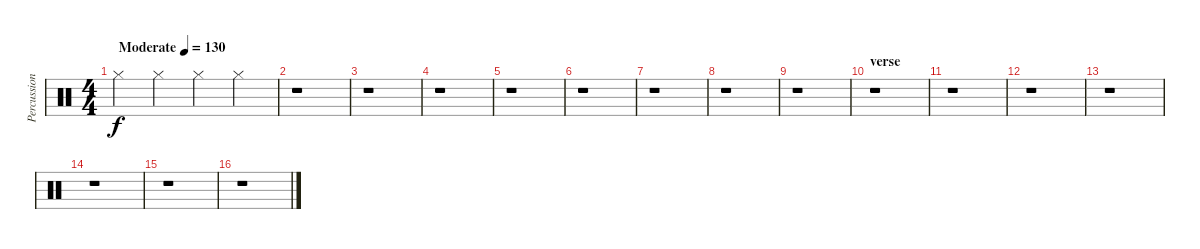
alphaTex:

\track ("Percussion" "Percussion") {instrument percussion}
\staff {score}
\articulation defaults
\ts (4 4)
\tempo (130 "Moderate")
\clef neutral
\ks c "Hi-Hat (closed)".4{dy f} "Hi-Hat (closed)".4 "Hi-Hat (closed)".4 "Hi-Hat (closed)".4
|
r.1 |
r.1 |
r.1 |
r.1 |
r.1 |
r.1 |
r.1 |
r.1 |
\section ("" "verse")
r.1 |
r.1 |
r.1 |
r.1 |
r.1 |
r.1 |
r.1
